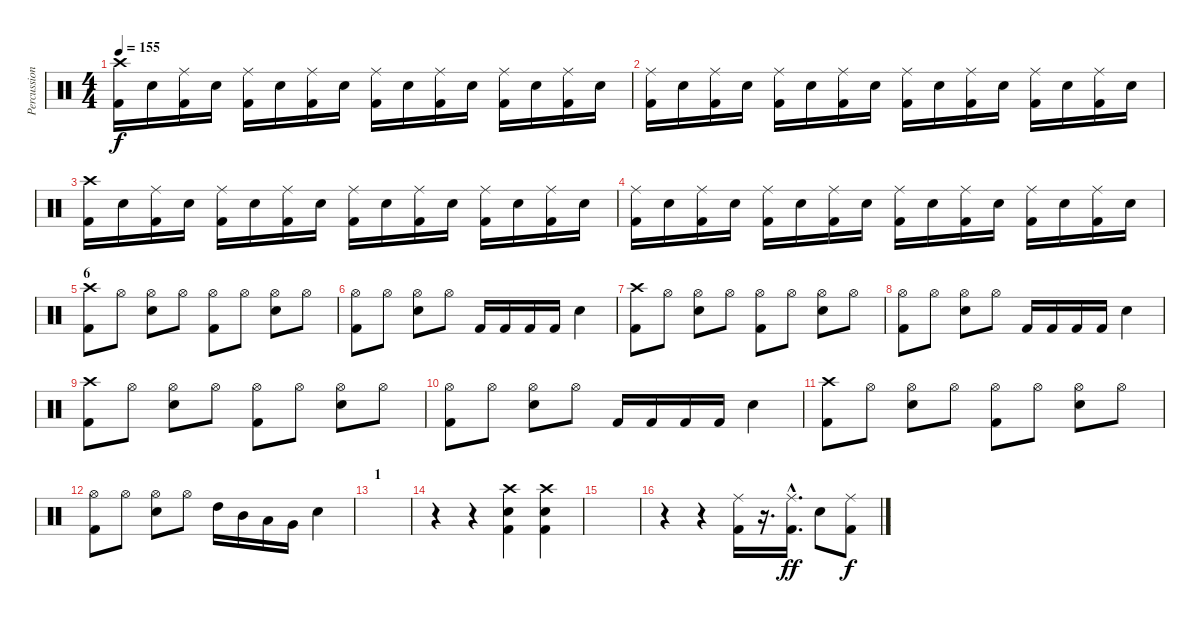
\track ("Percussion" "Percussion") {instrument percussion}
\staff {score}
\articulation defaults
\ts (4 4)
\tempo 155
\clef neutral
\ks c
("Crash high (hit)" "Kick (hit) 2").16{dy f} "Snare (hit) 2".16 ("Ride (middle)" "Kick (hit) 2").16 "Snare (hit) 2".16 ("Ride (middle)" "Kick (hit) 2").16 "Snare (hit) 2".16 ("Ride (middle)" "Kick (hit) 2").16 "Snare (hit) 2".16 ("Ride (middle)" "Kick (hit) 2").16 "Snare (hit) 2".16 ("Ride (middle)" "Kick (hit) 2").16 "Snare (hit) 2".16 ("Ride (middle)" "Kick (hit) 2").16 "Snare (hit) 2".16 ("Ride (middle)" "Kick (hit) 2").16 "Snare (hit) 2".16 |
("Ride (middle)" "Kick (hit) 2").16 "Snare (hit) 2".16 ("Ride (middle)" "Kick (hit) 2").16 "Snare (hit) 2".16 ("Ride (middle)" "Kick (hit) 2").16 "Snare (hit) 2".16 ("Ride (middle)" "Kick (hit) 2").16 "Snare (hit) 2".16 ("Ride (middle)" "Kick (hit) 2").16 "Snare (hit) 2".16 ("Ride (middle)" "Kick (hit) 2").16 "Snare (hit) 2".16 ("Ride (middle)" "Kick (hit) 2").16 "Snare (hit) 2".16 ("Ride (middle)" "Kick (hit) 2").16 "Snare (hit) 2".16 |
("Crash high (hit)" "Kick (hit) 2").16 "Snare (hit) 2".16 ("Ride (middle)" "Kick (hit) 2").16 "Snare (hit) 2".16 ("Ride (middle)" "Kick (hit) 2").16 "Snare (hit) 2".16 ("Ride (middle)" "Kick (hit) 2").16 "Snare (hit) 2".16 ("Ride (middle)" "Kick (hit) 2").16 "Snare (hit) 2".16 ("Ride (middle)" "Kick (hit) 2").16 "Snare (hit) 2".16 ("Ride (middle)" "Kick (hit) 2").16 "Snare (hit) 2".16 ("Ride (middle)" "Kick (hit) 2").16 "Snare (hit) 2".16 |
("Ride (middle)" "Kick (hit) 2").16 "Snare (hit) 2".16 ("Ride (middle)" "Kick (hit) 2").16 "Snare (hit) 2".16 ("Ride (middle)" "Kick (hit) 2").16 "Snare (hit) 2".16 ("Ride (middle)" "Kick (hit) 2").16 "Snare (hit) 2".16 ("Ride (middle)" "Kick (hit) 2").16 "Snare (hit) 2".16 ("Ride (middle)" "Kick (hit) 2").16 "Snare (hit) 2".16 ("Ride (middle)" "Kick (hit) 2").16 "Snare (hit) 2".16 ("Ride (middle)" "Kick (hit) 2").16 "Snare (hit) 2".16 |
\section ("" "6")
("Crash high (hit)" "Kick (hit) 2").8 "Hi-Hat (open)".8 ("Hi-Hat (open)" "Snare (hit) 2").8 "Hi-Hat (open)".8 ("Hi-Hat (open)" "Kick (hit) 2").8 "Hi-Hat (open)".8 ("Hi-Hat (open)" "Snare (hit) 2").8 "Hi-Hat (open)".8 |
("Hi-Hat (open)" "Kick (hit) 2").8 "Hi-Hat (open)".8 ("Hi-Hat (open)" "Snare (hit) 2").8 "Hi-Hat (open)".8 "Kick (hit) 2".16 "Kick (hit) 2".16 "Kick (hit) 2".16 "Kick (hit) 2".16 "Snare (hit) 2".4 |
("Crash high (hit)" "Kick (hit) 2").8 "Hi-Hat (open)".8 ("Hi-Hat (open)" "Snare (hit) 2").8 "Hi-Hat (open)".8 ("Hi-Hat (open)" "Kick (hit) 2").8 "Hi-Hat (open)".8 ("Hi-Hat (open)" "Snare (hit) 2").8 "Hi-Hat (open)".8 |
("Hi-Hat (open)" "Kick (hit) 2").8 "Hi-Hat (open)".8 ("Hi-Hat (open)" "Snare (hit) 2").8 "Hi-Hat (open)".8 "Kick (hit) 2".16 "Kick (hit) 2".16 "Kick (hit) 2".16 "Kick (hit) 2".16 "Snare (hit) 2".4 |
("Crash high (hit)" "Kick (hit) 2").8 "Hi-Hat (open)".8 ("Hi-Hat (open)" "Snare (hit) 2").8 "Hi-Hat (open)".8 ("Hi-Hat (open)" "Kick (hit) 2").8 "Hi-Hat (open)".8 ("Hi-Hat (open)" "Snare (hit) 2").8 "Hi-Hat (open)".8 |
("Hi-Hat (open)" "Kick (hit) 2").8 "Hi-Hat (open)".8 ("Hi-Hat (open)" "Snare (hit) 2").8 "Hi-Hat (open)".8 "Kick (hit) 2".16 "Kick (hit) 2".16 "Kick (hit) 2".16 "Kick (hit) 2".16 "Snare (hit) 2".4 |
("Crash high (hit)" "Kick (hit) 2").8 "Hi-Hat (open)".8 ("Hi-Hat (open)" "Snare (hit) 2").8 "Hi-Hat (open)".8 ("Hi-Hat (open)" "Kick (hit) 2").8 "Hi-Hat (open)".8 ("Hi-Hat (open)" "Snare (hit) 2").8 "Hi-Hat (open)".8 |
("Hi-Hat (open)" "Kick (hit) 2").8 "Hi-Hat (open)".8 ("Hi-Hat (open)" "Snare (hit) 2").8 "Hi-Hat (open)".8 "High Tom (hit)".16 "Mid Tom (hit)".16 "Low Tom (hit)".16 "Very Low Tom (hit)".16 "Snare (hit) 2".4 |
\section ("" "1")
|
r.4 r.4 ("Crash high (hit)" "Snare (hit) 2" "Kick (hit) 2").4 ("Crash high (hit)" "Snare (hit) 2" "Kick (hit) 2").4 |
|
r.4 r.4 ("Ride (middle)" "Kick (hit) 2").16 r.16{d} ("Ride (middle)"{hac} "Kick (hit) 2"{hac}).16{d dy ff} "Snare (hit) 2".8 ("Ride (middle)" "Kick (hit) 2").8{dy f}
